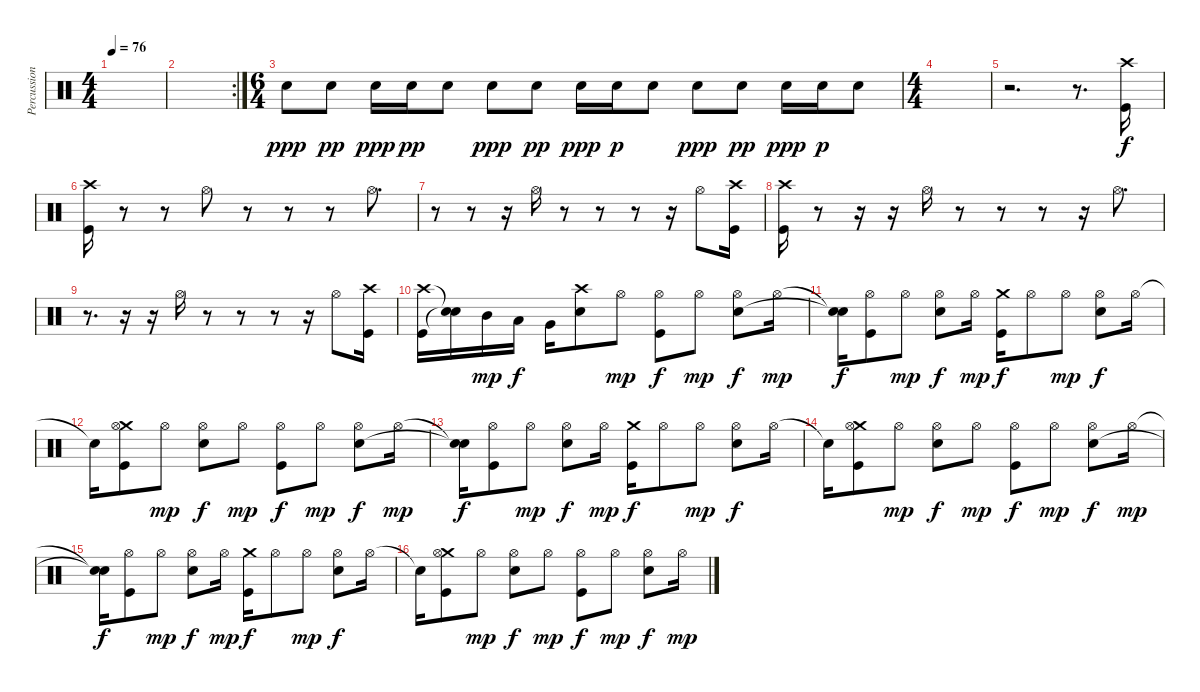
\track ("Percussion" "Percussion") {instrument percussion}
\staff {score}
\articulation defaults
\ts (4 4)
\tempo 76
\clef neutral
\ks c
|
\rc 2
|
\ts (6 4)
"Snare (hit) 2".8{dy ppp} "Snare (hit) 2".8{dy pp} "Snare (hit) 2".16{dy ppp} "Snare (hit) 2".16{dy pp} "Snare (hit) 2".8 "Snare (hit) 2".8{dy ppp} "Snare (hit) 2".8{dy pp} "Snare (hit) 2".16{dy ppp} "Snare (hit) 2".16{dy p} "Snare (hit) 2".8 "Snare (hit) 2".8{dy ppp} "Snare (hit) 2".8{dy pp} "Snare (hit) 2".16{dy ppp} "Snare (hit) 2".16{dy p} "Snare (hit) 2".8 |
\ts (4 4)
|
r.2{d} r.8{d} ("Crash high (hit)" "Kick (hit)").16{dy f volume 14} |
("Crash high (hit)" "Kick (hit)").16 r.8 r.8 "Hi-Hat (open)".8 r.8 r.8 r.8 "Hi-Hat (open)".8{d} |
r.8 r.8 r.16 "Hi-Hat (open)".16 r.8 r.8 r.8 r.16 "Hi-Hat (open)".8 ("Crash high (hit)" "Kick (hit)").16 |
("Crash high (hit)" "Kick (hit)").16 r.8 r.16 r.16 "Hi-Hat (open)".16 r.8 r.8 r.8 r.16 "Hi-Hat (open)".8{d} |
r.8{d} r.16 r.16 "Hi-Hat (open)".16 r.8 r.8 r.8 r.16 "Hi-Hat (open)".8 ("Crash high (hit)" "Kick (hit)").16 |
("Crash high (hit)" "Kick (hit)").16 ("Snare (hit)"{t} "Snare (hit)"{t}).16 "Mid Tom (hit)".16{dy mp} "Low Tom (hit)".16{dy f} "Very Low Tom (hit)".16 ("Crash high (hit)" "Electric Snare (hit)").8 "Hi-Hat (open)".8{dy mp} ("Hi-Hat (open)" "Kick (hit)").8{dy f} "Hi-Hat (open)".8{dy mp} ("Hi-Hat (open)" "Electric Snare (hit)").8{dy f} "Hi-Hat (open)".16{dy mp} |
("Snare (hit)"{t} "Snare (hit)"{t}).16{dy f} ("Hi-Hat (open)" "Kick (hit)").8 "Hi-Hat (open)".8{dy mp} ("Hi-Hat (open)" "Electric Snare (hit)").8{dy f} "Hi-Hat (open)".16{dy mp} ("Crash medium (hit)" "Kick (hit)").16{dy f} "Hi-Hat (open)".8 "Hi-Hat (open)".8{dy mp} ("Hi-Hat (open)" "Electric Snare (hit)").8{dy f} "Hi-Hat (open)".16 |
"Snare (hit)"{t}.16 ("Crash medium (hit)" "Hi-Hat (open)" "Kick (hit)").8 "Hi-Hat (open)".8{dy mp} ("Hi-Hat (open)" "Electric Snare (hit)").8{dy f} "Hi-Hat (open)".8{dy mp} ("Hi-Hat (open)" "Kick (hit)").8{dy f} "Hi-Hat (open)".8{dy mp} ("Hi-Hat (open)" "Electric Snare (hit)").8{dy f} "Hi-Hat (open)".16{dy mp} |
("Snare (hit)"{t} "Snare (hit)"{t}).16{dy f} ("Hi-Hat (open)" "Kick (hit)").8 "Hi-Hat (open)".8{dy mp} ("Hi-Hat (open)" "Electric Snare (hit)").8{dy f} "Hi-Hat (open)".16{dy mp} ("Crash medium (hit)" "Kick (hit)").16{dy f} "Hi-Hat (open)".8 "Hi-Hat (open)".8{dy mp} ("Hi-Hat (open)" "Electric Snare (hit)").8{dy f} "Hi-Hat (open)".16 |
"Snare (hit)"{t}.16 ("Crash medium (hit)" "Hi-Hat (open)" "Kick (hit)").8 "Hi-Hat (open)".8{dy mp} ("Hi-Hat (open)" "Electric Snare (hit)").8{dy f} "Hi-Hat (open)".8{dy mp} ("Hi-Hat (open)" "Kick (hit)").8{dy f} "Hi-Hat (open)".8{dy mp} ("Hi-Hat (open)" "Electric Snare (hit)").8{dy f} "Hi-Hat (open)".16{dy mp} |
("Snare (hit)"{t} "Snare (hit)"{t}).16{dy f} ("Hi-Hat (open)" "Kick (hit)").8 "Hi-Hat (open)".8{dy mp} ("Hi-Hat (open)" "Electric Snare (hit)").8{dy f} "Hi-Hat (open)".16{dy mp} ("Crash medium (hit)" "Kick (hit)").16{dy f} "Hi-Hat (open)".8 "Hi-Hat (open)".8{dy mp} ("Hi-Hat (open)" "Electric Snare (hit)").8{dy f} "Hi-Hat (open)".16 |
"Snare (hit)"{t}.16 ("Crash medium (hit)" "Hi-Hat (open)" "Kick (hit)").8 "Hi-Hat (open)".8{dy mp} ("Hi-Hat (open)" "Electric Snare (hit)").8{dy f} "Hi-Hat (open)".8{dy mp} ("Hi-Hat (open)" "Kick (hit)").8{dy f} "Hi-Hat (open)".8{dy mp} ("Hi-Hat (open)" "Electric Snare (hit)").8{dy f} "Hi-Hat (open)".16{dy mp}
